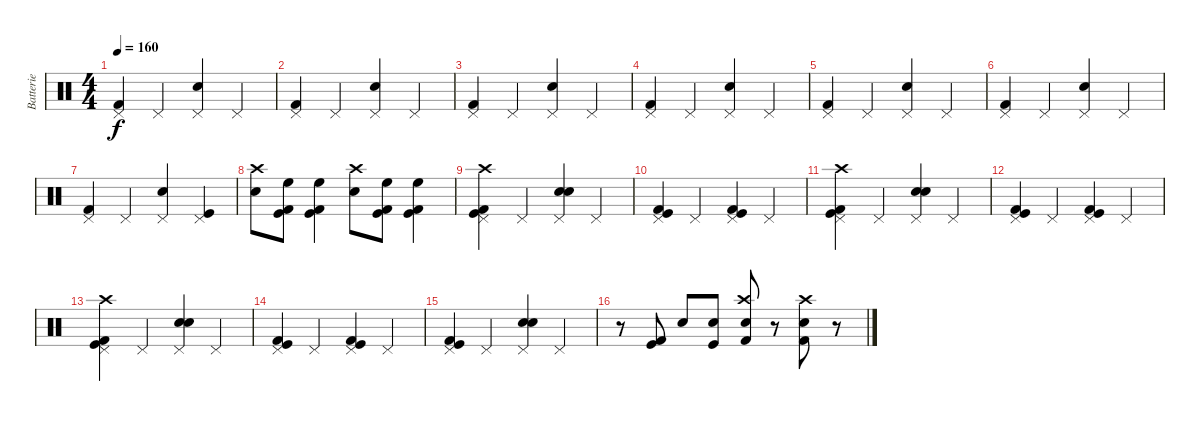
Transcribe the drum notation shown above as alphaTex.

\track ("Batterie" "Batterie") {instrument percussion}
\staff {score}
\articulation defaults
\ts (4 4)
\tempo 160
\clef neutral
\ks c
("Pedal Hi-Hat (hit)" "Kick (hit) 2").4{dy f} "Pedal Hi-Hat (hit)".4 ("Pedal Hi-Hat (hit)" "Electric Snare (hit)").4 "Pedal Hi-Hat (hit)".4 |
("Pedal Hi-Hat (hit)" "Kick (hit) 2").4 "Pedal Hi-Hat (hit)".4 ("Pedal Hi-Hat (hit)" "Electric Snare (hit)").4 "Pedal Hi-Hat (hit)".4 |
("Pedal Hi-Hat (hit)" "Kick (hit) 2").4 "Pedal Hi-Hat (hit)".4 ("Pedal Hi-Hat (hit)" "Electric Snare (hit)").4 "Pedal Hi-Hat (hit)".4 |
("Pedal Hi-Hat (hit)" "Kick (hit) 2").4 "Pedal Hi-Hat (hit)".4 ("Pedal Hi-Hat (hit)" "Electric Snare (hit)").4 "Pedal Hi-Hat (hit)".4 |
("Pedal Hi-Hat (hit)" "Kick (hit) 2").4 "Pedal Hi-Hat (hit)".4 ("Pedal Hi-Hat (hit)" "Electric Snare (hit)").4 "Pedal Hi-Hat (hit)".4 |
("Pedal Hi-Hat (hit)" "Kick (hit) 2").4 "Pedal Hi-Hat (hit)".4 ("Pedal Hi-Hat (hit)" "Electric Snare (hit)").4 "Pedal Hi-Hat (hit)".4 |
("Pedal Hi-Hat (hit)" "Kick (hit) 2").4 "Pedal Hi-Hat (hit)".4 ("Pedal Hi-Hat (hit)" "Electric Snare (hit)").4 ("Pedal Hi-Hat (hit)" "Kick (hit)").4 |
("Electric Snare (hit)" "Crash high (hit)").8 ("Kick (hit) 2" "Kick (hit)" "High Floor Tom (hit)").8 ("Kick (hit) 2" "Kick (hit)" "High Floor Tom (hit)").4 ("Electric Snare (hit)" "Crash high (hit)").8 ("Kick (hit) 2" "Kick (hit)" "High Floor Tom (hit)").8 ("Kick (hit) 2" "Kick (hit)" "High Floor Tom (hit)").4 |
("Crash high (hit)" "Pedal Hi-Hat (hit)" "Kick (hit)" "Kick (hit) 2").4 "Pedal Hi-Hat (hit)".4 ("Pedal Hi-Hat (hit)" "Electric Snare (hit)" "Electric Snare (hit)").4 "Pedal Hi-Hat (hit)".4 |
("Pedal Hi-Hat (hit)" "Kick (hit)" "Kick (hit) 2").4 "Pedal Hi-Hat (hit)".4 ("Pedal Hi-Hat (hit)" "Kick (hit)" "Kick (hit) 2").4 "Pedal Hi-Hat (hit)".4 |
("Crash high (hit)" "Pedal Hi-Hat (hit)" "Kick (hit)" "Kick (hit) 2").4 "Pedal Hi-Hat (hit)".4 ("Pedal Hi-Hat (hit)" "Electric Snare (hit)" "Electric Snare (hit)").4 "Pedal Hi-Hat (hit)".4 |
("Pedal Hi-Hat (hit)" "Kick (hit)" "Kick (hit) 2").4 "Pedal Hi-Hat (hit)".4 ("Pedal Hi-Hat (hit)" "Kick (hit)" "Kick (hit) 2").4 "Pedal Hi-Hat (hit)".4 |
("Crash high (hit)" "Pedal Hi-Hat (hit)" "Kick (hit)" "Kick (hit) 2").4 "Pedal Hi-Hat (hit)".4 ("Pedal Hi-Hat (hit)" "Electric Snare (hit)" "Electric Snare (hit)").4 "Pedal Hi-Hat (hit)".4 |
("Pedal Hi-Hat (hit)" "Kick (hit)" "Kick (hit) 2").4 "Pedal Hi-Hat (hit)".4 ("Pedal Hi-Hat (hit)" "Kick (hit)" "Kick (hit) 2").4 "Pedal Hi-Hat (hit)".4 |
("Pedal Hi-Hat (hit)" "Kick (hit)" "Kick (hit) 2").4 "Pedal Hi-Hat (hit)".4 ("Pedal Hi-Hat (hit)" "Electric Snare (hit)" "Electric Snare (hit)").4 "Pedal Hi-Hat (hit)".4 |
r.8 ("Kick (hit)" "Kick (hit) 2").8 "Electric Snare (hit)".8 ("Snare (hit) 2" "Kick (hit)").8 ("Crash high (hit)" "Snare (hit) 2" "Kick (hit) 2").8 r.8 ("Crash high (hit)" "Electric Snare (hit)" "Kick (hit) 2").8 r.8
